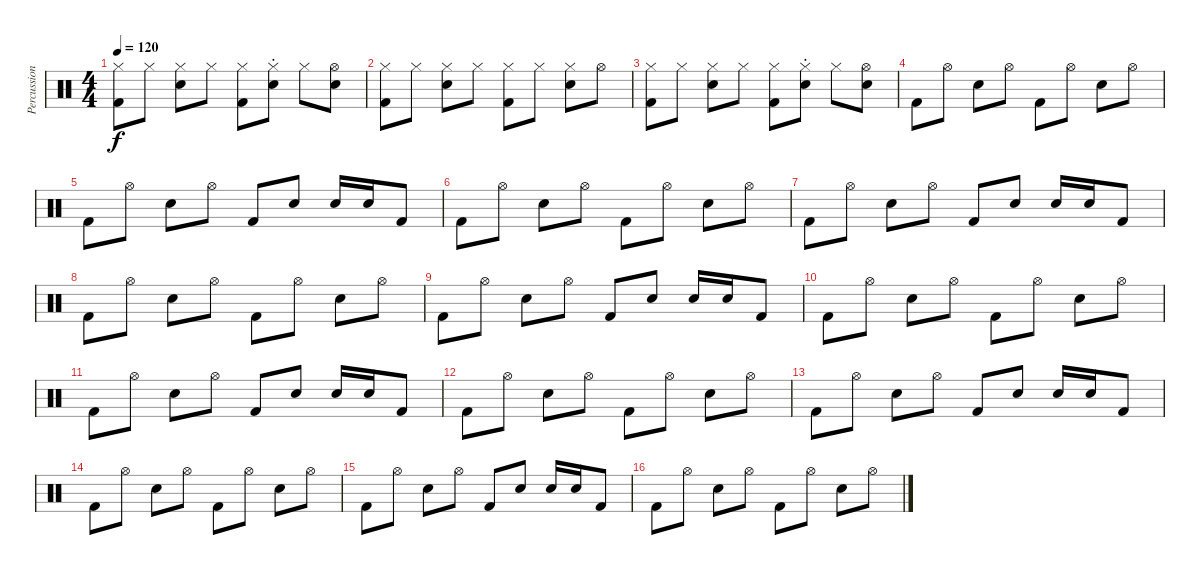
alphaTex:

\track ("Percussion" "Percussion") {instrument percussion}
\staff {score}
\articulation defaults
\ts (4 4)
\tempo 120
\clef neutral
\ks c
("Hi-Hat (closed)" "Kick (hit) 2").8{dy f} "Hi-Hat (closed)".8 ("Hi-Hat (closed)" "Snare (hit) 2").8 "Hi-Hat (closed)".8 ("Hi-Hat (closed)" "Kick (hit) 2").8 ("Hi-Hat (closed)"{st} "Snare (hit) 2"{st}).8 "Hi-Hat (closed)".8 ("Hi-Hat (open)" "Snare (hit) 2").8 |
("Hi-Hat (closed)" "Kick (hit) 2").8 "Hi-Hat (closed)".8 ("Hi-Hat (closed)" "Snare (hit) 2").8 "Hi-Hat (closed)".8 ("Hi-Hat (closed)" "Kick (hit) 2").8 "Hi-Hat (closed)".8 ("Hi-Hat (closed)" "Snare (hit) 2").8 "Hi-Hat (open)".8 |
("Hi-Hat (closed)" "Kick (hit) 2").8 "Hi-Hat (closed)".8 ("Hi-Hat (closed)" "Snare (hit) 2").8 "Hi-Hat (closed)".8 ("Hi-Hat (closed)" "Kick (hit) 2").8 ("Hi-Hat (closed)"{st} "Snare (hit) 2"{st}).8 "Hi-Hat (closed)".8 ("Hi-Hat (open)" "Snare (hit) 2").8 |
"Kick (hit) 2".8 "Hi-Hat (open)".8 "Snare (hit) 2".8 "Hi-Hat (open)".8 "Kick (hit) 2".8 "Hi-Hat (open)".8 "Snare (hit) 2".8 "Hi-Hat (open)".8 |
"Kick (hit) 2".8 "Hi-Hat (open)".8 "Snare (hit) 2".8 "Hi-Hat (open)".8 "Kick (hit) 2".8 "Snare (hit) 2".8 "Snare (hit) 2".16 "Snare (hit) 2".16 "Kick (hit) 2".8 |
"Kick (hit) 2".8 "Hi-Hat (open)".8 "Snare (hit) 2".8 "Hi-Hat (open)".8 "Kick (hit) 2".8 "Hi-Hat (open)".8 "Snare (hit) 2".8 "Hi-Hat (open)".8 |
"Kick (hit) 2".8 "Hi-Hat (open)".8 "Snare (hit) 2".8 "Hi-Hat (open)".8 "Kick (hit) 2".8 "Snare (hit) 2".8 "Snare (hit) 2".16 "Snare (hit) 2".16 "Kick (hit) 2".8 |
"Kick (hit) 2".8 "Hi-Hat (open)".8 "Snare (hit) 2".8 "Hi-Hat (open)".8 "Kick (hit) 2".8 "Hi-Hat (open)".8 "Snare (hit) 2".8 "Hi-Hat (open)".8 |
"Kick (hit) 2".8 "Hi-Hat (open)".8 "Snare (hit) 2".8 "Hi-Hat (open)".8 "Kick (hit) 2".8 "Snare (hit) 2".8 "Snare (hit) 2".16 "Snare (hit) 2".16 "Kick (hit) 2".8 |
"Kick (hit) 2".8 "Hi-Hat (open)".8 "Snare (hit) 2".8 "Hi-Hat (open)".8 "Kick (hit) 2".8 "Hi-Hat (open)".8 "Snare (hit) 2".8 "Hi-Hat (open)".8 |
"Kick (hit) 2".8 "Hi-Hat (open)".8 "Snare (hit) 2".8 "Hi-Hat (open)".8 "Kick (hit) 2".8 "Snare (hit) 2".8 "Snare (hit) 2".16 "Snare (hit) 2".16 "Kick (hit) 2".8 |
"Kick (hit) 2".8 "Hi-Hat (open)".8 "Snare (hit) 2".8 "Hi-Hat (open)".8 "Kick (hit) 2".8 "Hi-Hat (open)".8 "Snare (hit) 2".8 "Hi-Hat (open)".8 |
"Kick (hit) 2".8 "Hi-Hat (open)".8 "Snare (hit) 2".8 "Hi-Hat (open)".8 "Kick (hit) 2".8 "Snare (hit) 2".8 "Snare (hit) 2".16 "Snare (hit) 2".16 "Kick (hit) 2".8 |
"Kick (hit) 2".8 "Hi-Hat (open)".8 "Snare (hit) 2".8 "Hi-Hat (open)".8 "Kick (hit) 2".8 "Hi-Hat (open)".8 "Snare (hit) 2".8 "Hi-Hat (open)".8 |
"Kick (hit) 2".8 "Hi-Hat (open)".8 "Snare (hit) 2".8 "Hi-Hat (open)".8 "Kick (hit) 2".8 "Snare (hit) 2".8 "Snare (hit) 2".16 "Snare (hit) 2".16 "Kick (hit) 2".8 |
"Kick (hit) 2".8 "Hi-Hat (open)".8 "Snare (hit) 2".8 "Hi-Hat (open)".8 "Kick (hit) 2".8 "Hi-Hat (open)".8 "Snare (hit) 2".8 "Hi-Hat (open)".8
